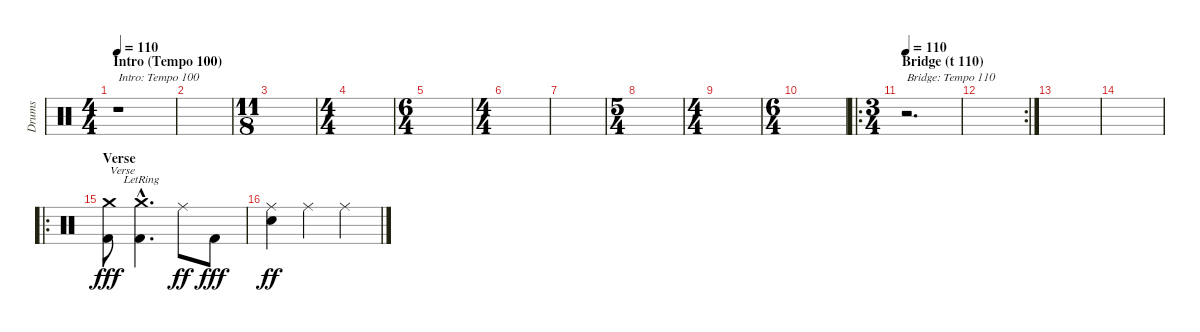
\track ("Drums" "Drums") {instrument percussion}
\staff {score}
\articulation defaults
\ts (4 4)
\section ("" "Intro (Tempo 100)")
\tempo 110
\tempo 100
\tempo 110
\clef neutral
\ks c
r.1{txt "Intro: Tempo 100" dy fff} |
|
\ts (11 8)
|
\ts (4 4)
|
\ts (6 4)
|
\ts (4 4)
|
|
\ts (5 4)
|
\ts (4 4)
|
\ts (6 4)
|
\ro
\ts (3 4)
\section ("" "Bridge (t 110)")
\tempo 110
r.2{d txt "Bridge: Tempo 110"} |
\rc 2
|
|
|
\ro
\section ("" "Verse")
("Crash medium (hit)" "Kick (hit) 2").8{txt "Verse"} ("Crash medium (hit)"{hac lr} "Kick (hit) 2"{hac}).4{d} "Ride (middle)".8{dy ff} "Kick (hit) 2".8{dy fff} |
("Ride (middle)" "Snare (hit) 2").4{dy ff} "Ride (middle)".4 "Ride (middle)".4
